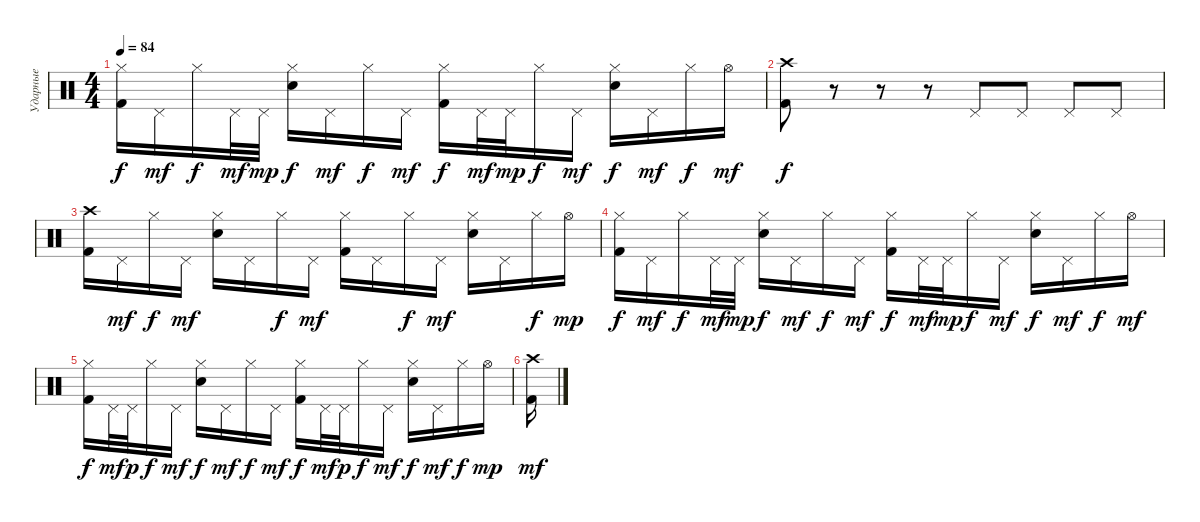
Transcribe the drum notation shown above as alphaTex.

\track ("Ударные" "Ударные") {instrument percussion}
\staff {score}
\articulation defaults
\ts (4 4)
\tempo 84
\clef neutral
\ks c
("Hi-Hat (closed)" "Kick (hit) 2").16{dy f} "Pedal Hi-Hat (hit)".16{dy mf} "Hi-Hat (closed)".16{dy f} "Pedal Hi-Hat (hit)".32{dy mf} "Pedal Hi-Hat (hit)".32{dy mp} ("Hi-Hat (closed)" "Electric Snare (hit)").16{dy f} "Pedal Hi-Hat (hit)".16{dy mf} "Hi-Hat (closed)".16{dy f} "Pedal Hi-Hat (hit)".16{dy mf} ("Hi-Hat (closed)" "Kick (hit) 2").16{dy f} "Pedal Hi-Hat (hit)".32{dy mf} "Pedal Hi-Hat (hit)".32{dy mp} "Hi-Hat (closed)".16{dy f} "Pedal Hi-Hat (hit)".16{dy mf} ("Hi-Hat (closed)" "Electric Snare (hit)").16{dy f} "Pedal Hi-Hat (hit)".16{dy mf} "Hi-Hat (closed)".16{dy f} "Hi-Hat (open)".16{dy mf} |
("Crash high (hit)" "Kick (hit) 2").8{dy f} r.8 r.8 r.8 "Pedal Hi-Hat (hit)".8 "Pedal Hi-Hat (hit)".8 "Pedal Hi-Hat (hit)".8 "Pedal Hi-Hat (hit)".8 |
("Crash high (hit)" "Kick (hit) 2").16 "Pedal Hi-Hat (hit)".16{dy mf} "Hi-Hat (closed)".16{dy f} "Pedal Hi-Hat (hit)".16{dy mf} ("Hi-Hat (closed)" "Electric Snare (hit)").16 "Pedal Hi-Hat (hit)".16 "Hi-Hat (closed)".16{dy f} "Pedal Hi-Hat (hit)".16{dy mf} ("Hi-Hat (closed)" "Kick (hit) 2").16 "Pedal Hi-Hat (hit)".16 "Hi-Hat (closed)".16{dy f} "Pedal Hi-Hat (hit)".16{dy mf} ("Hi-Hat (closed)" "Electric Snare (hit)").16 "Pedal Hi-Hat (hit)".16 "Hi-Hat (closed)".16{dy f} "Hi-Hat (open)".16{dy mp} |
("Hi-Hat (closed)" "Kick (hit) 2").16{dy f} "Pedal Hi-Hat (hit)".16{dy mf} "Hi-Hat (closed)".16{dy f} "Pedal Hi-Hat (hit)".32{dy mf} "Pedal Hi-Hat (hit)".32{dy mp} ("Hi-Hat (closed)" "Electric Snare (hit)").16{dy f} "Pedal Hi-Hat (hit)".16{dy mf} "Hi-Hat (closed)".16{dy f} "Pedal Hi-Hat (hit)".16{dy mf} ("Hi-Hat (closed)" "Kick (hit) 2").16{dy f} "Pedal Hi-Hat (hit)".32{dy mf} "Pedal Hi-Hat (hit)".32{dy mp} "Hi-Hat (closed)".16{dy f} "Pedal Hi-Hat (hit)".16{dy mf} ("Hi-Hat (closed)" "Electric Snare (hit)").16{dy f} "Pedal Hi-Hat (hit)".16{dy mf} "Hi-Hat (closed)".16{dy f} "Hi-Hat (open)".16{dy mf} |
("Hi-Hat (closed)" "Kick (hit) 2").16{dy f} "Pedal Hi-Hat (hit)".32{dy mf} "Pedal Hi-Hat (hit)".32{dy p} "Hi-Hat (closed)".16{dy f} "Pedal Hi-Hat (hit)".16{dy mf} ("Hi-Hat (closed)" "Electric Snare (hit)").16{dy f} "Pedal Hi-Hat (hit)".16{dy mf} "Hi-Hat (closed)".16{dy f} "Pedal Hi-Hat (hit)".16{dy mf} ("Hi-Hat (closed)" "Kick (hit) 2").16{dy f} "Pedal Hi-Hat (hit)".32{dy mf} "Pedal Hi-Hat (hit)".32{dy p} "Hi-Hat (closed)".16{dy f} "Pedal Hi-Hat (hit)".16{dy mf} ("Hi-Hat (closed)" "Electric Snare (hit)").16{dy f} "Pedal Hi-Hat (hit)".16{dy mf} "Hi-Hat (closed)".16{dy f} "Hi-Hat (open)".16{dy mp} |
("Crash high (hit)" "Kick (hit) 2").16{dy mf}
